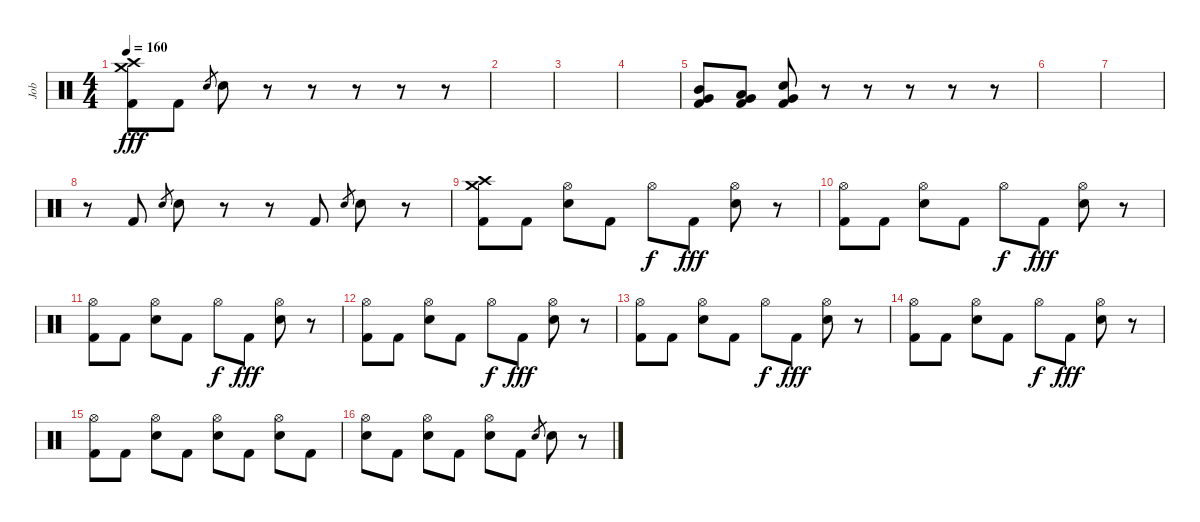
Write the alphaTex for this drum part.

\track ("Job" "Job") {instrument percussion}
\staff {score}
\articulation defaults
\ts (4 4)
\tempo 160
\clef neutral
\ks c
("Crash medium (hit)" "Crash high (hit)" "Kick (hit) 2").8{dy fff} "Kick (hit) 2".8 "Electric Snare (hit)".8{gr} "Electric Snare (hit)".8 r.8 r.8 r.8 r.8 r.8 |
|
|
|
("Mid Tom (hit)" "Very Low Tom (hit)" "Kick (hit) 2").8 ("Low Tom (hit)" "Very Low Tom (hit)" "Kick (hit) 2").8 ("Electric Snare (hit)" "Very Low Tom (hit)" "Kick (hit) 2").8 r.8 r.8 r.8 r.8 r.8 |
|
|
r.8 "Kick (hit) 2".8 "Electric Snare (hit)".8{gr} "Electric Snare (hit)".8 r.8 r.8 "Kick (hit) 2".8 "Electric Snare (hit)".8{gr} "Electric Snare (hit)".8 r.8 |
("Crash medium (hit)" "Crash high (hit)" "Kick (hit) 2").8 "Kick (hit) 2".8 ("Hi-Hat (open)" "Electric Snare (hit)").8 "Kick (hit) 2".8 "Hi-Hat (open)".8{dy f} "Kick (hit) 2".8{dy fff} ("Hi-Hat (open)" "Electric Snare (hit)").8 r.8 |
("Hi-Hat (open)" "Kick (hit) 2").8 "Kick (hit) 2".8 ("Hi-Hat (open)" "Electric Snare (hit)").8 "Kick (hit) 2".8 "Hi-Hat (open)".8{dy f} "Kick (hit) 2".8{dy fff} ("Hi-Hat (open)" "Electric Snare (hit)").8 r.8 |
("Hi-Hat (open)" "Kick (hit) 2").8 "Kick (hit) 2".8 ("Hi-Hat (open)" "Electric Snare (hit)").8 "Kick (hit) 2".8 "Hi-Hat (open)".8{dy f} "Kick (hit) 2".8{dy fff} ("Hi-Hat (open)" "Electric Snare (hit)").8 r.8 |
("Hi-Hat (open)" "Kick (hit) 2").8 "Kick (hit) 2".8 ("Hi-Hat (open)" "Electric Snare (hit)").8 "Kick (hit) 2".8 "Hi-Hat (open)".8{dy f} "Kick (hit) 2".8{dy fff} ("Hi-Hat (open)" "Electric Snare (hit)").8 r.8 |
("Hi-Hat (open)" "Kick (hit) 2").8 "Kick (hit) 2".8 ("Hi-Hat (open)" "Electric Snare (hit)").8 "Kick (hit) 2".8 "Hi-Hat (open)".8{dy f} "Kick (hit) 2".8{dy fff} ("Hi-Hat (open)" "Electric Snare (hit)").8 r.8 |
("Hi-Hat (open)" "Kick (hit) 2").8 "Kick (hit) 2".8 ("Hi-Hat (open)" "Electric Snare (hit)").8 "Kick (hit) 2".8 "Hi-Hat (open)".8{dy f} "Kick (hit) 2".8{dy fff} ("Hi-Hat (open)" "Electric Snare (hit)").8 r.8 |
("Hi-Hat (open)" "Kick (hit) 2").8 "Kick (hit) 2".8 ("Hi-Hat (open)" "Electric Snare (hit)").8 "Kick (hit) 2".8 ("Hi-Hat (open)" "Electric Snare (hit)").8 "Kick (hit) 2".8 ("Hi-Hat (open)" "Electric Snare (hit)").8 "Kick (hit) 2".8 |
("Hi-Hat (open)" "Electric Snare (hit)").8 "Kick (hit) 2".8 ("Hi-Hat (open)" "Electric Snare (hit)").8 "Kick (hit) 2".8 ("Hi-Hat (open)" "Electric Snare (hit)").8 "Kick (hit) 2".8 "Electric Snare (hit)".8{gr} "Electric Snare (hit)".8 r.8
